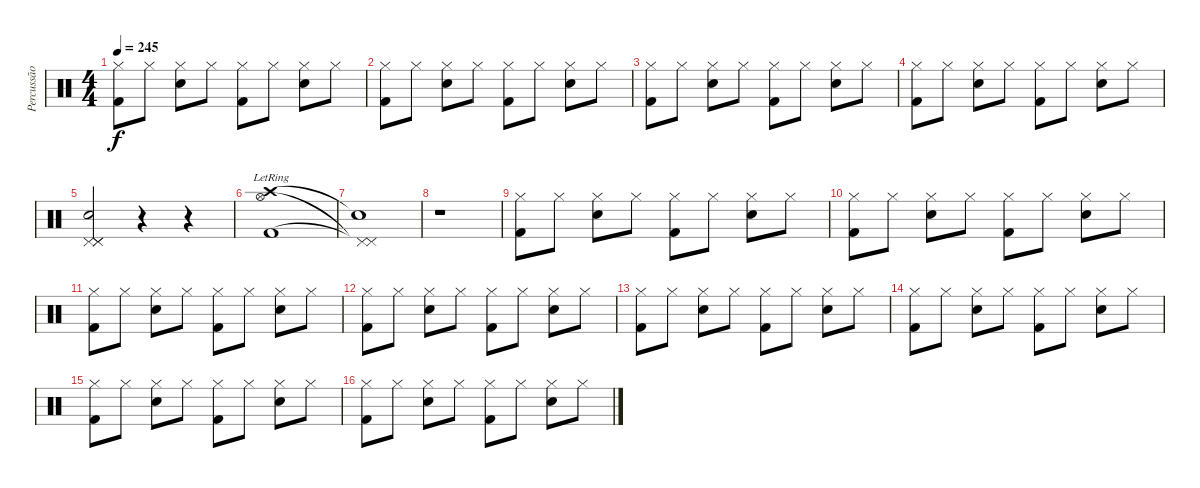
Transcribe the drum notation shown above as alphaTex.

\track ("Percussão" "Percussão") {instrument percussion}
\staff {score}
\articulation defaults
\ts (4 4)
\tempo 245
\clef neutral
\ks c
("Hi-Hat (closed)" "Kick (hit) 2").8{dy f} "Hi-Hat (closed)".8 ("Hi-Hat (closed)" "Snare (hit) 2").8 "Hi-Hat (closed)".8 ("Hi-Hat (closed)" "Kick (hit) 2").8 "Hi-Hat (closed)".8 ("Hi-Hat (closed)" "Snare (hit) 2").8 "Hi-Hat (closed)".8 |
("Hi-Hat (closed)" "Kick (hit) 2").8 "Hi-Hat (closed)".8 ("Hi-Hat (closed)" "Snare (hit) 2").8 "Hi-Hat (closed)".8 ("Hi-Hat (closed)" "Kick (hit) 2").8 "Hi-Hat (closed)".8 ("Hi-Hat (closed)" "Snare (hit) 2").8 "Hi-Hat (closed)".8 |
("Hi-Hat (closed)" "Kick (hit) 2").8 "Hi-Hat (closed)".8 ("Hi-Hat (closed)" "Snare (hit) 2").8 "Hi-Hat (closed)".8 ("Hi-Hat (closed)" "Kick (hit) 2").8 "Hi-Hat (closed)".8 ("Hi-Hat (closed)" "Snare (hit) 2").8 "Hi-Hat (closed)".8 |
("Hi-Hat (closed)" "Kick (hit) 2").8 "Hi-Hat (closed)".8 ("Hi-Hat (closed)" "Snare (hit) 2").8 "Hi-Hat (closed)".8 ("Hi-Hat (closed)" "Kick (hit) 2").8 "Hi-Hat (closed)".8 ("Hi-Hat (closed)" "Snare (hit) 2").8 "Hi-Hat (closed)".8 |
("Pedal Hi-Hat (hit)" "Pedal Hi-Hat (hit)" "Snare (hit) 2" "Pedal Hi-Hat (hit)").2 r.4 r.4 |
("Kick (hit) 2"{lr} "Crash high (hit)"{lr} "Hi-Hat (open)"{lr}).1 |
("Pedal Hi-Hat (hit)"{t} "Snare (hit) 2"{t} "Pedal Hi-Hat (hit)"{t}).1 |
r.1 |
("Hi-Hat (closed)" "Kick (hit) 2").8 "Hi-Hat (closed)".8 ("Hi-Hat (closed)" "Snare (hit) 2").8 "Hi-Hat (closed)".8 ("Hi-Hat (closed)" "Kick (hit) 2").8 "Hi-Hat (closed)".8 ("Hi-Hat (closed)" "Snare (hit) 2").8 "Hi-Hat (closed)".8 |
("Hi-Hat (closed)" "Kick (hit) 2").8 "Hi-Hat (closed)".8 ("Hi-Hat (closed)" "Snare (hit) 2").8 "Hi-Hat (closed)".8 ("Hi-Hat (closed)" "Kick (hit) 2").8 "Hi-Hat (closed)".8 ("Hi-Hat (closed)" "Snare (hit) 2").8 "Hi-Hat (closed)".8 |
("Hi-Hat (closed)" "Kick (hit) 2").8 "Hi-Hat (closed)".8 ("Hi-Hat (closed)" "Snare (hit) 2").8 "Hi-Hat (closed)".8 ("Hi-Hat (closed)" "Kick (hit) 2").8 "Hi-Hat (closed)".8 ("Hi-Hat (closed)" "Snare (hit) 2").8 "Hi-Hat (closed)".8 |
("Hi-Hat (closed)" "Kick (hit) 2").8 "Hi-Hat (closed)".8 ("Hi-Hat (closed)" "Snare (hit) 2").8 "Hi-Hat (closed)".8 ("Hi-Hat (closed)" "Kick (hit) 2").8 "Hi-Hat (closed)".8 ("Hi-Hat (closed)" "Snare (hit) 2").8 "Hi-Hat (closed)".8 |
("Hi-Hat (closed)" "Kick (hit) 2").8 "Hi-Hat (closed)".8 ("Hi-Hat (closed)" "Snare (hit) 2").8 "Hi-Hat (closed)".8 ("Hi-Hat (closed)" "Kick (hit) 2").8 "Hi-Hat (closed)".8 ("Hi-Hat (closed)" "Snare (hit) 2").8 "Hi-Hat (closed)".8 |
("Hi-Hat (closed)" "Kick (hit) 2").8 "Hi-Hat (closed)".8 ("Hi-Hat (closed)" "Snare (hit) 2").8 "Hi-Hat (closed)".8 ("Hi-Hat (closed)" "Kick (hit) 2").8 "Hi-Hat (closed)".8 ("Hi-Hat (closed)" "Snare (hit) 2").8 "Hi-Hat (closed)".8 |
("Hi-Hat (closed)" "Kick (hit) 2").8 "Hi-Hat (closed)".8 ("Hi-Hat (closed)" "Snare (hit) 2").8 "Hi-Hat (closed)".8 ("Hi-Hat (closed)" "Kick (hit) 2").8 "Hi-Hat (closed)".8 ("Hi-Hat (closed)" "Snare (hit) 2").8 "Hi-Hat (closed)".8 |
("Hi-Hat (closed)" "Kick (hit) 2").8 "Hi-Hat (closed)".8 ("Hi-Hat (closed)" "Snare (hit) 2").8 "Hi-Hat (closed)".8 ("Hi-Hat (closed)" "Kick (hit) 2").8 "Hi-Hat (closed)".8 ("Hi-Hat (closed)" "Snare (hit) 2").8 "Hi-Hat (closed)".8
